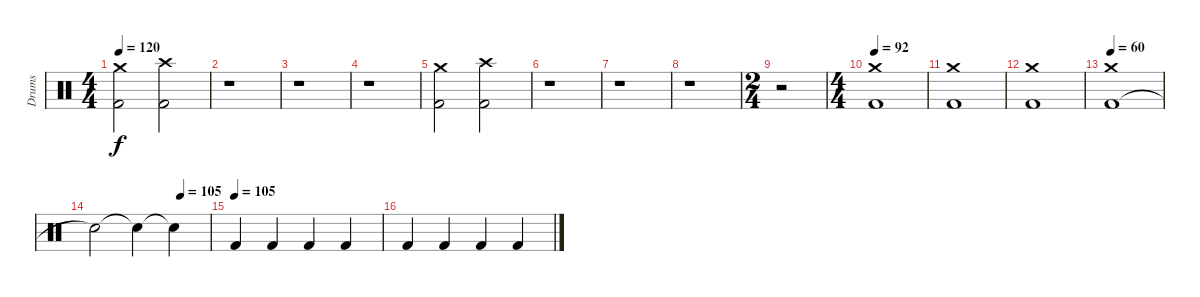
\track ("Drums" "Drums") {instrument percussion}
\staff {score}
\articulation defaults
\ts (4 4)
\tempo 120
\clef neutral
\ks c
("Kick (hit) 2" "Crash medium (hit)").2{dy f} ("Kick (hit) 2" "Crash high (hit)").2 |
r.1 |
r.1 |
r.1 |
("Kick (hit) 2" "Crash medium (hit)").2 ("Kick (hit) 2" "Crash high (hit)").2 |
r.1 |
r.1 |
r.1 |
\ts (2 4)
r.2 |
\ts (4 4)
\tempo 92
("Kick (hit) 2" "Crash medium (hit)").1 |
("Kick (hit) 2" "Crash medium (hit)").1 |
("Kick (hit) 2" "Crash medium (hit)").1 |
\tempo 60
("Kick (hit) 2" "Crash medium (hit)").1 |
\tempo (105 0.75)
"Snare (hit)"{t}.2 "Snare (hit)"{t}.4 "Snare (hit)"{t}.4 |
\tempo 112
\tempo (105)
"Kick (hit) 2".4 "Kick (hit) 2".4 "Kick (hit) 2".4 "Kick (hit) 2".4 |
"Kick (hit) 2".4 "Kick (hit) 2".4 "Kick (hit) 2".4 "Kick (hit) 2".4
